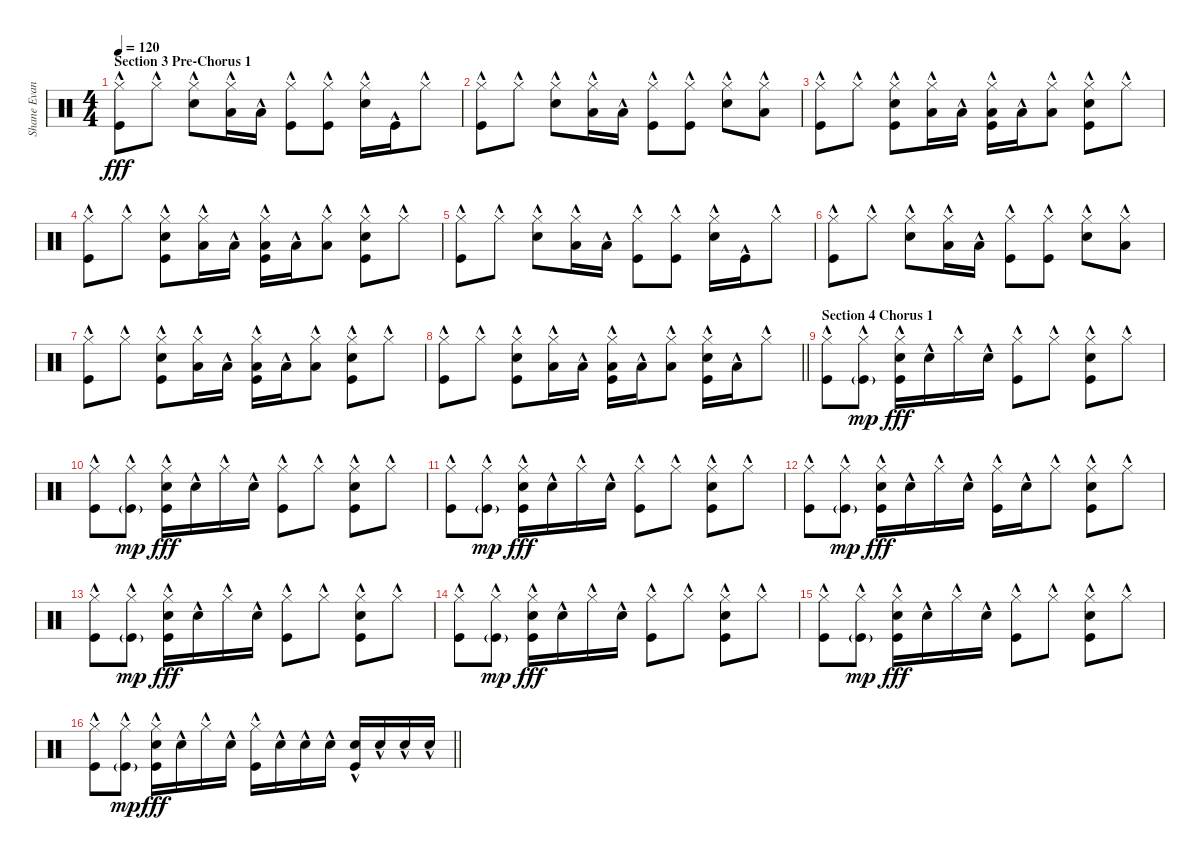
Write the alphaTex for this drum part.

\track ("Shane Evans" "Shane Evan") {instrument percussion}
\staff {score}
\articulation defaults
\ts (4 4)
\section ("" "Section 3 Pre-Chorus 1")
\tempo 120
\clef neutral
\ks c
("Hi-Hat (closed)"{hac} "Kick (hit)"{hac}).8{dy fff} "Hi-Hat (closed)"{hac}.8 ("Hi-Hat (closed)"{hac} "Electric Snare (hit)"{hac}).8 ("Hi-Hat (closed)"{hac} "Low Tom (hit)"{hac}).16 "Low Tom (hit)"{hac}.16 ("Hi-Hat (closed)"{hac} "Kick (hit)"{hac}).8 ("Hi-Hat (closed)"{hac} "Kick (hit)"{hac}).8 ("Hi-Hat (closed)"{hac} "Electric Snare (hit)"{hac}).16 "Kick (hit)"{hac}.16 "Hi-Hat (closed)"{hac}.8 |
("Hi-Hat (closed)"{hac} "Kick (hit)"{hac}).8 "Hi-Hat (closed)"{hac}.8 ("Hi-Hat (closed)"{hac} "Electric Snare (hit)"{hac}).8 ("Hi-Hat (closed)"{hac} "Low Tom (hit)"{hac}).16 "Low Tom (hit)"{hac}.16 ("Hi-Hat (closed)"{hac} "Kick (hit)"{hac}).8 ("Hi-Hat (closed)"{hac} "Kick (hit)"{hac}).8 ("Hi-Hat (closed)"{hac} "Electric Snare (hit)"{hac}).8 ("Hi-Hat (closed)"{hac} "Low Tom (hit)"{hac}).8 |
("Hi-Hat (closed)"{hac} "Kick (hit)"{hac}).8 "Hi-Hat (closed)"{hac}.8 ("Hi-Hat (closed)"{hac} "Electric Snare (hit)"{hac} "Kick (hit)"{hac}).8 ("Hi-Hat (closed)"{hac} "Low Tom (hit)"{hac}).16 "Low Tom (hit)"{hac}.16 ("Hi-Hat (closed)"{hac} "Low Tom (hit)"{hac} "Kick (hit)"{hac}).16 "Low Tom (hit)"{hac}.16 ("Hi-Hat (closed)"{hac} "Low Tom (hit)"{hac}).8 ("Hi-Hat (closed)"{hac} "Electric Snare (hit)"{hac} "Kick (hit)"{hac}).8 "Hi-Hat (closed)"{hac}.8 |
("Hi-Hat (closed)"{hac} "Kick (hit)"{hac}).8 "Hi-Hat (closed)"{hac}.8 ("Hi-Hat (closed)"{hac} "Electric Snare (hit)"{hac} "Kick (hit)"{hac}).8 ("Hi-Hat (closed)"{hac} "Low Tom (hit)"{hac}).16 "Low Tom (hit)"{hac}.16 ("Hi-Hat (closed)"{hac} "Low Tom (hit)"{hac} "Kick (hit)"{hac}).16 "Low Tom (hit)"{hac}.16 ("Hi-Hat (closed)"{hac} "Low Tom (hit)"{hac}).8 ("Hi-Hat (closed)"{hac} "Electric Snare (hit)"{hac} "Kick (hit)"{hac}).8 "Hi-Hat (closed)"{hac}.8 |
("Hi-Hat (closed)"{hac} "Kick (hit)"{hac}).8 "Hi-Hat (closed)"{hac}.8 ("Hi-Hat (closed)"{hac} "Electric Snare (hit)"{hac}).8 ("Hi-Hat (closed)"{hac} "Low Tom (hit)"{hac}).16 "Low Tom (hit)"{hac}.16 ("Hi-Hat (closed)"{hac} "Kick (hit)"{hac}).8 ("Hi-Hat (closed)"{hac} "Kick (hit)"{hac}).8 ("Hi-Hat (closed)"{hac} "Electric Snare (hit)"{hac}).16 "Kick (hit)"{hac}.16 "Hi-Hat (closed)"{hac}.8 |
("Hi-Hat (closed)"{hac} "Kick (hit)"{hac}).8 "Hi-Hat (closed)"{hac}.8 ("Hi-Hat (closed)"{hac} "Electric Snare (hit)"{hac}).8 ("Hi-Hat (closed)"{hac} "Low Tom (hit)"{hac}).16 "Low Tom (hit)"{hac}.16 ("Hi-Hat (closed)"{hac} "Kick (hit)"{hac}).8 ("Hi-Hat (closed)"{hac} "Kick (hit)"{hac}).8 ("Hi-Hat (closed)"{hac} "Electric Snare (hit)"{hac}).8 ("Hi-Hat (closed)"{hac} "Low Tom (hit)"{hac}).8 |
("Hi-Hat (closed)"{hac} "Kick (hit)"{hac}).8 "Hi-Hat (closed)"{hac}.8 ("Hi-Hat (closed)"{hac} "Electric Snare (hit)"{hac} "Kick (hit)"{hac}).8 ("Hi-Hat (closed)"{hac} "Low Tom (hit)"{hac}).16 "Low Tom (hit)"{hac}.16 ("Hi-Hat (closed)"{hac} "Low Tom (hit)"{hac} "Kick (hit)"{hac}).16 "Low Tom (hit)"{hac}.16 ("Hi-Hat (closed)"{hac} "Low Tom (hit)"{hac}).8 ("Hi-Hat (closed)"{hac} "Electric Snare (hit)"{hac} "Kick (hit)"{hac}).8 "Hi-Hat (closed)"{hac}.8 |
\barLineRight lightlight
("Hi-Hat (closed)"{hac} "Kick (hit)"{hac}).8 "Hi-Hat (closed)"{hac}.8 ("Hi-Hat (closed)"{hac} "Electric Snare (hit)"{hac} "Kick (hit)"{hac}).8 ("Hi-Hat (closed)"{hac} "Low Tom (hit)"{hac}).16 "Low Tom (hit)"{hac}.16 ("Hi-Hat (closed)"{hac} "Low Tom (hit)"{hac} "Kick (hit)"{hac}).16 "Low Tom (hit)"{hac}.16 ("Hi-Hat (closed)"{hac} "Low Tom (hit)"{hac}).8 ("Hi-Hat (closed)"{hac} "Electric Snare (hit)"{hac} "Kick (hit)"{hac}).16 "Low Tom (hit)"{hac}.16 "Hi-Hat (closed)"{hac}.8 |
\section ("" "Section 4 Chorus 1")
("Hi-Hat (closed)"{hac} "Kick (hit)"{hac}).8 ("Hi-Hat (closed)"{hac} "Kick (hit)"{g}).8{dy mp} ("Hi-Hat (closed)"{hac} "Electric Snare (hit)"{hac} "Kick (hit)"{hac}).16{dy fff} "Electric Snare (hit)"{hac}.16 "Hi-Hat (closed)"{hac}.16 "Electric Snare (hit)"{hac}.16 ("Hi-Hat (closed)"{hac} "Kick (hit)"{hac}).8 "Hi-Hat (closed)"{hac}.8 ("Hi-Hat (closed)"{hac} "Electric Snare (hit)"{hac} "Kick (hit)"{hac}).8 "Hi-Hat (closed)"{hac}.8 |
("Hi-Hat (closed)"{hac} "Kick (hit)"{hac}).8 ("Hi-Hat (closed)"{hac} "Kick (hit)"{g}).8{dy mp} ("Hi-Hat (closed)"{hac} "Electric Snare (hit)"{hac} "Kick (hit)"{hac}).16{dy fff} "Electric Snare (hit)"{hac}.16 "Hi-Hat (closed)"{hac}.16 "Electric Snare (hit)"{hac}.16 ("Hi-Hat (closed)"{hac} "Kick (hit)"{hac}).8 "Hi-Hat (closed)"{hac}.8 ("Hi-Hat (closed)"{hac} "Electric Snare (hit)"{hac} "Kick (hit)"{hac}).8 "Hi-Hat (closed)"{hac}.8 |
("Hi-Hat (closed)"{hac} "Kick (hit)"{hac}).8 ("Hi-Hat (closed)"{hac} "Kick (hit)"{g}).8{dy mp} ("Hi-Hat (closed)"{hac} "Electric Snare (hit)"{hac} "Kick (hit)"{hac}).16{dy fff} "Electric Snare (hit)"{hac}.16 "Hi-Hat (closed)"{hac}.16 "Electric Snare (hit)"{hac}.16 ("Hi-Hat (closed)"{hac} "Kick (hit)"{hac}).8 "Hi-Hat (closed)"{hac}.8 ("Hi-Hat (closed)"{hac} "Electric Snare (hit)"{hac} "Kick (hit)"{hac}).8 "Hi-Hat (closed)"{hac}.8 |
("Hi-Hat (closed)"{hac} "Kick (hit)"{hac}).8 ("Hi-Hat (closed)"{hac} "Kick (hit)"{g}).8{dy mp} ("Hi-Hat (closed)"{hac} "Electric Snare (hit)"{hac} "Kick (hit)"{hac}).16{dy fff} "Electric Snare (hit)"{hac}.16 "Hi-Hat (closed)"{hac}.16 "Electric Snare (hit)"{hac}.16 ("Hi-Hat (closed)"{hac} "Kick (hit)"{hac}).16 "Electric Snare (hit)"{hac}.16 "Hi-Hat (closed)"{hac}.8 ("Hi-Hat (closed)"{hac} "Electric Snare (hit)"{hac} "Kick (hit)"{hac}).8 "Hi-Hat (closed)"{hac}.8 |
("Hi-Hat (closed)"{hac} "Kick (hit)"{hac}).8 ("Hi-Hat (closed)"{hac} "Kick (hit)"{g}).8{dy mp} ("Hi-Hat (closed)"{hac} "Electric Snare (hit)"{hac} "Kick (hit)"{hac}).16{dy fff} "Electric Snare (hit)"{hac}.16 "Hi-Hat (closed)"{hac}.16 "Electric Snare (hit)"{hac}.16 ("Hi-Hat (closed)"{hac} "Kick (hit)"{hac}).8 "Hi-Hat (closed)"{hac}.8 ("Hi-Hat (closed)"{hac} "Electric Snare (hit)"{hac} "Kick (hit)"{hac}).8 "Hi-Hat (closed)"{hac}.8 |
("Hi-Hat (closed)"{hac} "Kick (hit)"{hac}).8 ("Hi-Hat (closed)"{hac} "Kick (hit)"{g}).8{dy mp} ("Hi-Hat (closed)"{hac} "Electric Snare (hit)"{hac} "Kick (hit)"{hac}).16{dy fff} "Electric Snare (hit)"{hac}.16 "Hi-Hat (closed)"{hac}.16 "Electric Snare (hit)"{hac}.16 ("Hi-Hat (closed)"{hac} "Kick (hit)"{hac}).8 "Hi-Hat (closed)"{hac}.8 ("Hi-Hat (closed)"{hac} "Electric Snare (hit)"{hac} "Kick (hit)"{hac}).8 "Hi-Hat (closed)"{hac}.8 |
("Hi-Hat (closed)"{hac} "Kick (hit)"{hac}).8 ("Hi-Hat (closed)"{hac} "Kick (hit)"{g}).8{dy mp} ("Hi-Hat (closed)"{hac} "Electric Snare (hit)"{hac} "Kick (hit)"{hac}).16{dy fff} "Electric Snare (hit)"{hac}.16 "Hi-Hat (closed)"{hac}.16 "Electric Snare (hit)"{hac}.16 ("Hi-Hat (closed)"{hac} "Kick (hit)"{hac}).8 "Hi-Hat (closed)"{hac}.8 ("Hi-Hat (closed)"{hac} "Electric Snare (hit)"{hac} "Kick (hit)"{hac}).8 "Hi-Hat (closed)"{hac}.8 |
\barLineRight lightlight
("Hi-Hat (closed)"{hac} "Kick (hit)"{hac}).8 ("Hi-Hat (closed)"{hac} "Kick (hit)"{g}).8{dy mp} ("Hi-Hat (closed)"{hac} "Electric Snare (hit)"{hac} "Kick (hit)"{hac}).16{dy fff} "Electric Snare (hit)"{hac}.16 "Hi-Hat (closed)"{hac}.16 "Electric Snare (hit)"{hac}.16 ("Hi-Hat (closed)"{hac} "Kick (hit)"{hac}).16 "Electric Snare (hit)"{hac}.16 "Electric Snare (hit)"{hac}.16 "Electric Snare (hit)"{hac}.16 ("Electric Snare (hit)"{hac} "Kick (hit)"{hac}).16 "Electric Snare (hit)"{hac}.16 "Electric Snare (hit)"{hac}.16 "Electric Snare (hit)"{hac}.16
